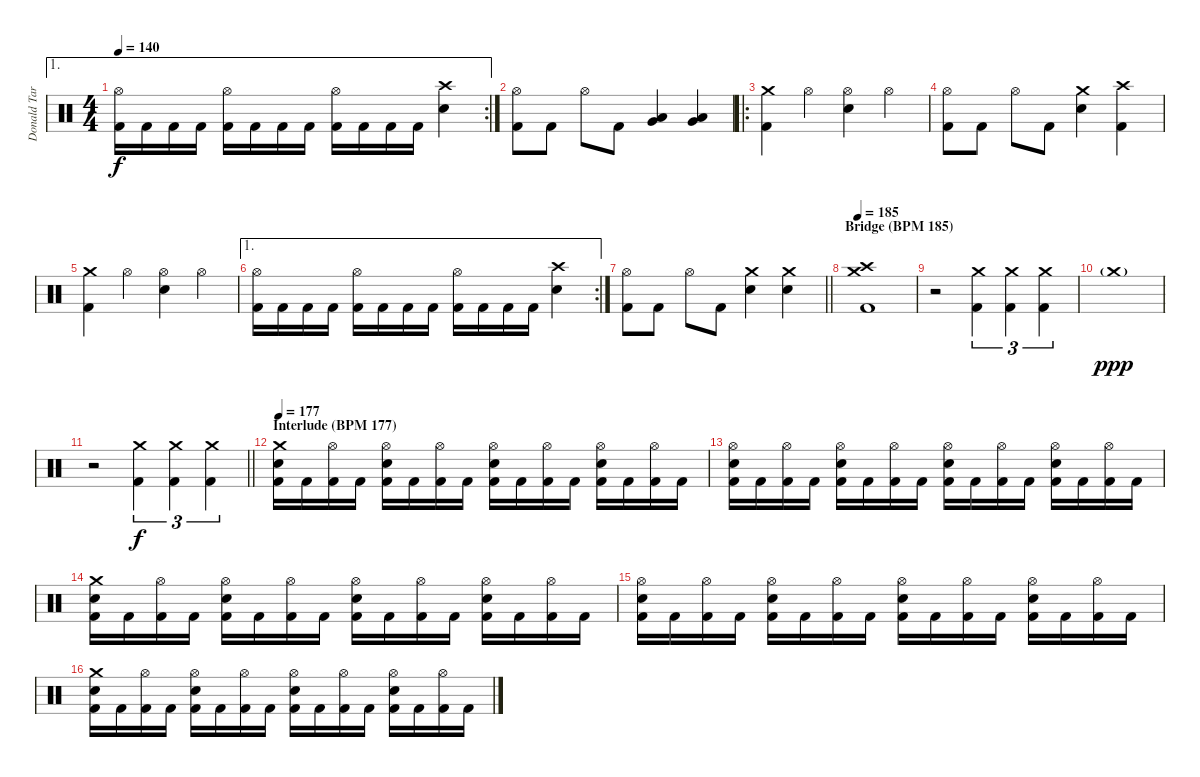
\track ("Donald Tardy" "Donald Tar") {instrument percussion}
\staff {score}
\articulation defaults
\ae 1
\rc 2
\ts (4 4)
\tempo 140
\clef neutral
\ks c
("Hi-Hat (open)" "Kick (hit) 2").16{dy f} "Kick (hit) 2".16 "Kick (hit) 2".16 "Kick (hit) 2".16 ("Hi-Hat (open)" "Kick (hit) 2").16 "Kick (hit) 2".16 "Kick (hit) 2".16 "Kick (hit) 2".16 ("Hi-Hat (open)" "Kick (hit) 2").16 "Kick (hit) 2".16 "Kick (hit) 2".16 "Kick (hit) 2".16 ("Crash high (hit)" "Snare (hit) 2").4 |
("Hi-Hat (open)" "Kick (hit) 2").8 "Kick (hit) 2".8 "Hi-Hat (open)".8 "Kick (hit) 2".8 ("Low Tom (hit)" "Very Low Tom (hit)").4 ("Low Tom (hit)" "Very Low Tom (hit)").4 |
\ro
("Crash medium (hit)" "Kick (hit) 2").4 "Hi-Hat (open)".4 ("Hi-Hat (open)" "Snare (hit) 2").4 "Hi-Hat (open)".4 |
("Hi-Hat (open)" "Kick (hit) 2").8 "Kick (hit) 2".8 "Hi-Hat (open)".8 "Kick (hit) 2".8 ("Crash medium (hit)" "Snare (hit) 2").4 ("Crash high (hit)" "Kick (hit) 2").4 |
("Crash medium (hit)" "Kick (hit) 2").4 "Hi-Hat (open)".4 ("Hi-Hat (open)" "Snare (hit) 2").4 "Hi-Hat (open)".4 |
\ae 1
\rc 2
("Hi-Hat (open)" "Kick (hit) 2").16 "Kick (hit) 2".16 "Kick (hit) 2".16 "Kick (hit) 2".16 ("Hi-Hat (open)" "Kick (hit) 2").16 "Kick (hit) 2".16 "Kick (hit) 2".16 "Kick (hit) 2".16 ("Hi-Hat (open)" "Kick (hit) 2").16 "Kick (hit) 2".16 "Kick (hit) 2".16 "Kick (hit) 2".16 ("Crash high (hit)" "Snare (hit) 2").4 |
\barLineRight lightlight
("Hi-Hat (open)" "Kick (hit) 2").8 "Kick (hit) 2".8 "Hi-Hat (open)".8 "Kick (hit) 2".8 ("Crash medium (hit)" "Snare (hit) 2").4 ("Crash medium (hit)" "Snare (hit) 2").4 |
\section ("" "Bridge (BPM 185)")
\tempo 185
("Crash medium (hit)" "Crash high (hit)" "Kick (hit) 2").1 |
r.2 ("Crash medium (hit)" "Kick (hit) 2").4{tu (3 2)} ("Crash medium (hit)" "Kick (hit) 2").4{tu (3 2)} ("Crash medium (hit)" "Kick (hit) 2").4{tu (3 2)} |
"Crash medium (hit)"{g}.1{dy ppp} |
\barLineRight lightlight
r.2 ("Crash medium (hit)" "Kick (hit) 2").4{tu (3 2) dy f} ("Crash medium (hit)" "Kick (hit) 2").4{tu (3 2)} ("Crash medium (hit)" "Kick (hit) 2").4{tu (3 2)} |
\section ("" "Interlude (BPM 177)")
\tempo 177
("Crash medium (hit)" "Snare (hit) 2" "Kick (hit) 2").16 "Kick (hit) 2".16 ("Hi-Hat (open)" "Kick (hit) 2").16 "Kick (hit) 2".16 ("Hi-Hat (open)" "Snare (hit) 2" "Kick (hit) 2").16 "Kick (hit) 2".16 ("Hi-Hat (open)" "Kick (hit) 2").16 "Kick (hit) 2".16 ("Hi-Hat (open)" "Snare (hit) 2" "Kick (hit) 2").16 "Kick (hit) 2".16 ("Hi-Hat (open)" "Kick (hit) 2").16 "Kick (hit) 2".16 ("Hi-Hat (open)" "Snare (hit) 2" "Kick (hit) 2").16 "Kick (hit) 2".16 ("Hi-Hat (open)" "Kick (hit) 2").16 "Kick (hit) 2".16 |
("Hi-Hat (open)" "Snare (hit) 2" "Kick (hit) 2").16 "Kick (hit) 2".16 ("Hi-Hat (open)" "Kick (hit) 2").16 "Kick (hit) 2".16 ("Hi-Hat (open)" "Snare (hit) 2" "Kick (hit) 2").16 "Kick (hit) 2".16 ("Hi-Hat (open)" "Kick (hit) 2").16 "Kick (hit) 2".16 ("Hi-Hat (open)" "Snare (hit) 2" "Kick (hit) 2").16 "Kick (hit) 2".16 ("Hi-Hat (open)" "Kick (hit) 2").16 "Kick (hit) 2".16 ("Hi-Hat (open)" "Snare (hit) 2" "Kick (hit) 2").16 "Kick (hit) 2".16 ("Hi-Hat (open)" "Kick (hit) 2").16 "Kick (hit) 2".16 |
("Crash medium (hit)" "Snare (hit) 2" "Kick (hit) 2").16 "Kick (hit) 2".16 ("Hi-Hat (open)" "Kick (hit) 2").16 "Kick (hit) 2".16 ("Hi-Hat (open)" "Snare (hit) 2" "Kick (hit) 2").16 "Kick (hit) 2".16 ("Hi-Hat (open)" "Kick (hit) 2").16 "Kick (hit) 2".16 ("Hi-Hat (open)" "Snare (hit) 2" "Kick (hit) 2").16 "Kick (hit) 2".16 ("Hi-Hat (open)" "Kick (hit) 2").16 "Kick (hit) 2".16 ("Hi-Hat (open)" "Snare (hit) 2" "Kick (hit) 2").16 "Kick (hit) 2".16 ("Hi-Hat (open)" "Kick (hit) 2").16 "Kick (hit) 2".16 |
("Hi-Hat (open)" "Snare (hit) 2" "Kick (hit) 2").16 "Kick (hit) 2".16 ("Hi-Hat (open)" "Kick (hit) 2").16 "Kick (hit) 2".16 ("Hi-Hat (open)" "Snare (hit) 2" "Kick (hit) 2").16 "Kick (hit) 2".16 ("Hi-Hat (open)" "Kick (hit) 2").16 "Kick (hit) 2".16 ("Hi-Hat (open)" "Snare (hit) 2" "Kick (hit) 2").16 "Kick (hit) 2".16 ("Hi-Hat (open)" "Kick (hit) 2").16 "Kick (hit) 2".16 ("Hi-Hat (open)" "Snare (hit) 2" "Kick (hit) 2").16 "Kick (hit) 2".16 ("Hi-Hat (open)" "Kick (hit) 2").16 "Kick (hit) 2".16 |
("Crash medium (hit)" "Snare (hit) 2" "Kick (hit) 2").16 "Kick (hit) 2".16 ("Hi-Hat (open)" "Kick (hit) 2").16 "Kick (hit) 2".16 ("Hi-Hat (open)" "Snare (hit) 2" "Kick (hit) 2").16 "Kick (hit) 2".16 ("Hi-Hat (open)" "Kick (hit) 2").16 "Kick (hit) 2".16 ("Hi-Hat (open)" "Snare (hit) 2" "Kick (hit) 2").16 "Kick (hit) 2".16 ("Hi-Hat (open)" "Kick (hit) 2").16 "Kick (hit) 2".16 ("Hi-Hat (open)" "Snare (hit) 2" "Kick (hit) 2").16 "Kick (hit) 2".16 ("Hi-Hat (open)" "Kick (hit) 2").16 "Kick (hit) 2".16
